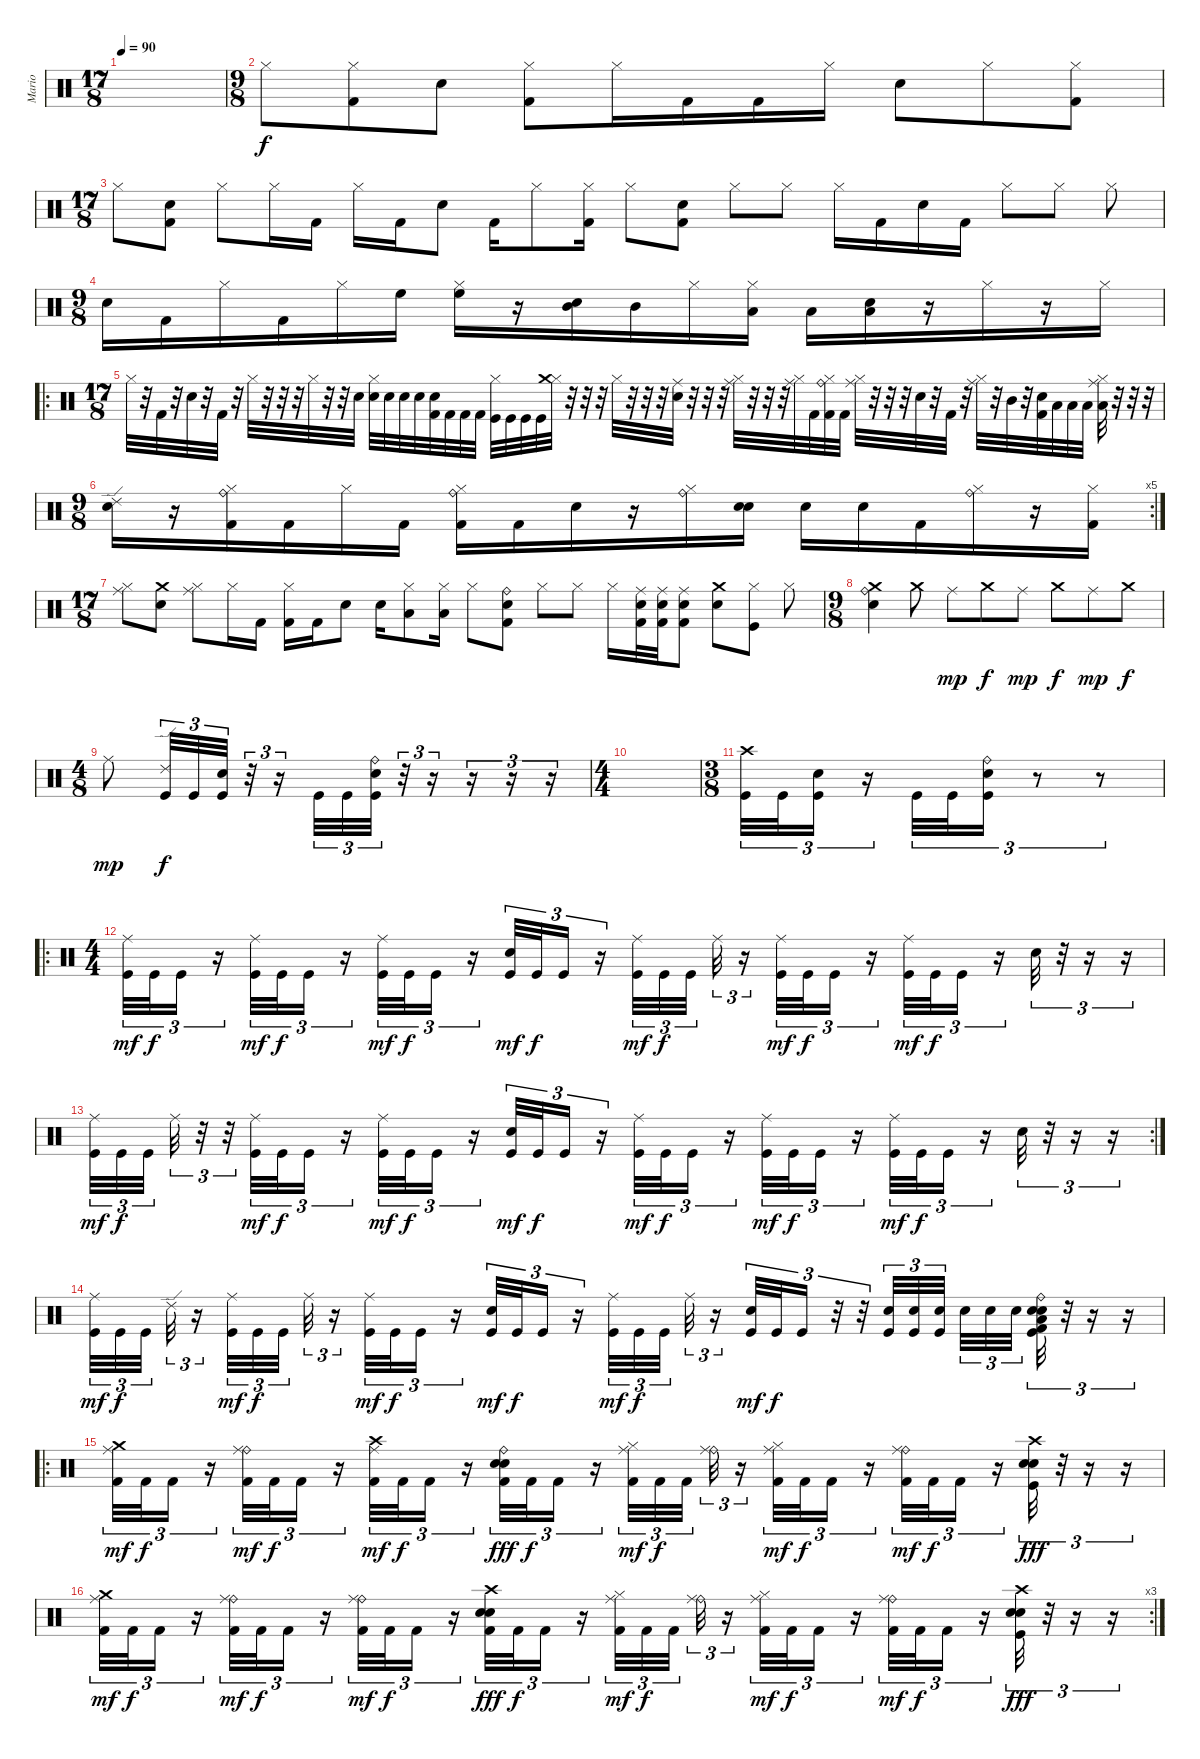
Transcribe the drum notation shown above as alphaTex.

\track ("Mario" "Mario") {instrument percussion}
\staff {score}
\articulation defaults
\ts (17 8)
\tempo 90
\clef neutral
\ks c
|
\ts (9 8)
"Hi-Hat (closed)".8 ("Hi-Hat (closed)" "Kick (hit) 2").8 "Electric Snare (hit)".8 ("Hi-Hat (closed)" "Kick (hit) 2").8 "Hi-Hat (closed)".16 "Kick (hit) 2".16 "Kick (hit) 2".16 "Hi-Hat (closed)".16 "Electric Snare (hit)".8 "Hi-Hat (closed)".8 ("Hi-Hat (closed)" "Kick (hit) 2").8 |
\ts (17 8)
"Hi-Hat (closed)".8 ("Electric Snare (hit)" "Kick (hit) 2").8 "Hi-Hat (closed)".8 "Hi-Hat (closed)".16 "Kick (hit) 2".16 "Hi-Hat (closed)".16 "Kick (hit) 2".16 "Electric Snare (hit)".8 "Kick (hit) 2".16 "Hi-Hat (closed)".8 ("Hi-Hat (closed)" "Kick (hit) 2").16 "Hi-Hat (closed)".8 ("Electric Snare (hit)" "Kick (hit) 2").8 "Hi-Hat (closed)".8 "Hi-Hat (closed)".8 "Hi-Hat (closed)".16 "Kick (hit) 2".16 "Electric Snare (hit)".16 "Kick (hit) 2".16 "Hi-Hat (closed)".8 "Hi-Hat (closed)".8 "Hi-Hat (closed)".8 |
\ts (9 8)
"Electric Snare (hit)".16 "Kick (hit) 2".16 "Hi-Hat (closed)".16 "Kick (hit) 2".16 "Hi-Hat (closed)".16 "High Floor Tom (hit)".16 ("Hi-Hat (closed)" "High Floor Tom (hit)").16 r.16 ("Electric Snare (hit)" "Mid Tom (hit)").16 "Mid Tom (hit)".16 "Hi-Hat (closed)".16 ("Hi-Hat (closed)" "Low Floor Tom (hit)").16 "Low Tom (hit)".16 ("Electric Snare (hit)" "Low Floor Tom (hit)").16 r.16 "Hi-Hat (closed)".16 r.16 "Hi-Hat (closed)".16 |
\ro
\ts (17 8)
"Hi-Hat (closed)".32 r.32 "Kick (hit) 2".32 r.32 "Electric Snare (hit)".32 r.32 "Kick (hit) 2".32 r.32 "Hi-Hat (closed)".32 r.32 r.32 r.32 "Hi-Hat (closed)".32 r.32 r.32 "Electric Snare (hit)".32 ("Hi-Hat (closed)" "Snare (hit) 2").32 "Snare (hit) 2".32 "Snare (hit) 2".32 "Snare (hit) 2".32 ("Electric Snare (hit)" "Kick (hit) 2").32 "Kick (hit) 2".32 "Kick (hit) 2".32 "Kick (hit) 2".32 ("Hi-Hat (closed)" "Kick (hit)").32 "Kick (hit)".32 "Kick (hit)".32 "Kick (hit)".32 ("Hi-Hat (closed)" "Crash medium (hit)").32 r.32 r.32 r.32 "Hi-Hat (closed)".32 r.32 r.32 r.32 ("Electric Snare (hit)" "Ride (middle)").32 r.32 r.32 r.32 ("Hi-Hat (closed)" "Ride (middle)").32 r.32 r.32 r.32 ("Hi-Hat (closed)" "Ride (middle)").32 "Kick (hit) 2".32 ("Hi-Hat (closed)" "Kick (hit) 2" "Ride (bell)").32 "Kick (hit) 2".32 ("Hi-Hat (closed)" "Ride (middle)").32 r.32 r.32 r.32 "Electric Snare (hit)".32 r.32 "Kick (hit) 2".32 r.32 ("Hi-Hat (closed)" "Ride (middle)").32 r.32 "Mid Tom (hit)".32 r.32 ("Snare (hit) 2" "Kick (hit) 2").32 "Low Tom (hit)".32 "Low Tom (hit)".32 "Low Tom (hit)".32 ("Hi-Hat (closed)" "Low Floor Tom (hit)" "Ride (middle)").32 r.32 r.32 r.32 |
\rc 5
\ts (9 8)
("Electric Snare (hit)" "Ride (edge) 2").16 r.16 ("Hi-Hat (closed)" "Kick (hit) 2" "Ride (bell)").16 "Kick (hit) 2".16 "Hi-Hat (closed)".16 "Kick (hit) 2".16 ("Hi-Hat (closed)" "Kick (hit) 2" "Ride (bell)").16 "Kick (hit) 2".16 "Electric Snare (hit)".16 r.16 ("Hi-Hat (closed)" "Ride (bell)").16 ("Electric Snare (hit)" "Snare (hit) 2").16 "Snare (hit) 2".16 "Electric Snare (hit)".16 "Kick (hit) 2".16 ("Hi-Hat (closed)" "Ride (bell)").16 r.16 ("Hi-Hat (closed)" "Kick (hit) 2").16 |
\ts (17 8)
("Hi-Hat (closed)" "Ride (middle)").8 ("Electric Snare (hit)" "Crash medium (hit)").8 ("Hi-Hat (closed)" "Ride (middle)").8 "Hi-Hat (closed)".16 "Kick (hit) 2".16 ("Hi-Hat (closed)" "Kick (hit) 2").16 "Kick (hit) 2".16 "Electric Snare (hit)".8 "Snare (hit) 2".16 ("Hi-Hat (closed)" "Low Tom (hit)").8 ("Hi-Hat (closed)" "Low Tom (hit)").16 "Hi-Hat (closed)".8 ("Electric Snare (hit)" "Kick (hit) 2" "Ride (bell)").8 "Hi-Hat (closed)".8 "Hi-Hat (closed)".8 "Hi-Hat (closed)".16 ("Snare (hit) 2" "Kick (hit) 2" "Ride (middle)").32 ("Snare (hit) 2" "Kick (hit) 2" "Ride (middle)").32 ("Snare (hit) 2" "Kick (hit) 2" "Ride (middle)").8 ("Electric Snare (hit)" "Crash medium (hit)").8 ("Hi-Hat (closed)" "Kick (hit)").8 "Hi-Hat (closed)".8 |
\ts (9 8)
("Crash medium (hit)" "Electric Snare (hit)" "Ride (bell)").4 "Crash medium (hit)".8 "Ride (middle)".8{dy mp} "Crash medium (hit)".8{dy f} "Ride (middle)".8{dy mp} "Crash medium (hit)".8{dy f} "Ride (middle)".8{dy mp} "Crash medium (hit)".8{dy f} |
\ts (4 8)
"Ride (middle)".8{dy mp} ("Ride (edge) 2" "Kick (hit)").32{tu (3 2) dy f} "Kick (hit)".32{tu (3 2)} ("Kick (hit)" "Electric Snare (hit)").32{tu (3 2)} r.32{tu (3 2)} r.16{tu (3 2)} "Kick (hit)".32{tu (3 2)} "Kick (hit)".32{tu (3 2)} ("Ride (bell)" "Kick (hit)" "Electric Snare (hit)").32{tu (3 2)} r.32{tu (3 2)} r.16{tu (3 2)} r.16{tu (3 2)} r.16{tu (3 2)} r.16{tu (3 2)} |
\ts (4 4)
|
\ts (3 8)
("Crash high (hit)" "Kick (hit)").32{tu (3 2)} "Kick (hit)".32{tu (3 2)} ("Kick (hit)" "Electric Snare (hit)").16{tu (3 2)} r.16{tu (3 2)} "Kick (hit)".32{tu (3 2)} "Kick (hit)".32{tu (3 2)} ("Ride (bell)" "Kick (hit)" "Electric Snare (hit)").16{tu (3 2)} r.8{tu (3 2)} r.8{tu (3 2)} |
\ro
\ts (4 4)
("Ride (middle)" "Kick (hit)").32{tu (3 2) dy mf} "Kick (hit)".32{tu (3 2) dy f} "Kick (hit)".16{tu (3 2)} r.16{tu (3 2)} ("Ride (middle)" "Kick (hit)").32{tu (3 2) dy mf} "Kick (hit)".32{tu (3 2) dy f} "Kick (hit)".16{tu (3 2)} r.16{tu (3 2)} ("Ride (middle)" "Kick (hit)").32{tu (3 2) dy mf} "Kick (hit)".32{tu (3 2) dy f} "Kick (hit)".16{tu (3 2)} r.16{tu (3 2)} ("Electric Snare (hit)" "Kick (hit)").32{tu (3 2) dy mf} "Kick (hit)".32{tu (3 2) dy f} "Kick (hit)".16{tu (3 2)} r.16{tu (3 2)} ("Ride (middle)" "Kick (hit)").32{tu (3 2) dy mf} "Kick (hit)".32{tu (3 2) dy f} "Kick (hit)".32{tu (3 2)} "Ride (middle)".32{tu (3 2)} r.16{tu (3 2)} ("Ride (middle)" "Kick (hit)").32{tu (3 2) dy mf} "Kick (hit)".32{tu (3 2) dy f} "Kick (hit)".16{tu (3 2)} r.16{tu (3 2)} ("Ride (middle)" "Kick (hit)").32{tu (3 2) dy mf} "Kick (hit)".32{tu (3 2) dy f} "Kick (hit)".16{tu (3 2)} r.16{tu (3 2)} "Electric Snare (hit)".32{tu (3 2)} r.32{tu (3 2)} r.16{tu (3 2)} r.16{tu (3 2)} |
\rc 2
("Ride (middle)" "Kick (hit)").32{tu (3 2) dy mf} "Kick (hit)".32{tu (3 2) dy f} "Kick (hit)".32{tu (3 2)} "Ride (middle)".32{tu (3 2)} r.32{tu (3 2)} r.32{tu (3 2)} ("Ride (middle)" "Kick (hit)").32{tu (3 2) dy mf} "Kick (hit)".32{tu (3 2) dy f} "Kick (hit)".16{tu (3 2)} r.16{tu (3 2)} ("Ride (middle)" "Kick (hit)").32{tu (3 2) dy mf} "Kick (hit)".32{tu (3 2) dy f} "Kick (hit)".16{tu (3 2)} r.16{tu (3 2)} ("Snare (hit) 2" "Kick (hit)").32{tu (3 2) dy mf} "Kick (hit)".32{tu (3 2) dy f} "Kick (hit)".16{tu (3 2)} r.16{tu (3 2)} ("Ride (middle)" "Kick (hit)").32{tu (3 2) dy mf} "Kick (hit)".32{tu (3 2) dy f} "Kick (hit)".16{tu (3 2)} r.16{tu (3 2)} ("Ride (middle)" "Kick (hit)").32{tu (3 2) dy mf} "Kick (hit)".32{tu (3 2) dy f} "Kick (hit)".16{tu (3 2)} r.16{tu (3 2)} ("Ride (middle)" "Kick (hit)").32{tu (3 2) dy mf} "Kick (hit)".32{tu (3 2) dy f} "Kick (hit)".16{tu (3 2)} r.16{tu (3 2)} "Snare (hit) 2".32{tu (3 2)} r.32{tu (3 2)} r.16{tu (3 2)} r.16{tu (3 2)} |
("Ride (middle)" "Kick (hit)").32{tu (3 2) dy mf} "Kick (hit)".32{tu (3 2) dy f} "Kick (hit)".32{tu (3 2)} "Ride (edge) 2".32{tu (3 2)} r.16{tu (3 2)} ("Ride (middle)" "Kick (hit)").32{tu (3 2) dy mf} "Kick (hit)".32{tu (3 2) dy f} "Kick (hit)".32{tu (3 2)} "Ride (middle)".32{tu (3 2)} r.16{tu (3 2)} ("Ride (middle)" "Kick (hit)").32{tu (3 2) dy mf} "Kick (hit)".32{tu (3 2) dy f} "Kick (hit)".16{tu (3 2)} r.16{tu (3 2)} ("Electric Snare (hit)" "Kick (hit)").32{tu (3 2) dy mf} "Kick (hit)".32{tu (3 2) dy f} "Kick (hit)".16{tu (3 2)} r.16{tu (3 2)} ("Ride (middle)" "Kick (hit)").32{tu (3 2) dy mf} "Kick (hit)".32{tu (3 2) dy f} "Kick (hit)".32{tu (3 2)} "Ride (middle)".32{tu (3 2)} r.16{tu (3 2)} ("Snare (hit) 2" "Kick (hit)").32{tu (3 2) dy mf} "Kick (hit)".32{tu (3 2) dy f} "Kick (hit)".16{tu (3 2)} r.32{tu (3 2)} r.32{tu (3 2)} ("Snare (hit) 2" "Kick (hit)").32{tu (3 2)} ("Snare (hit) 2" "Kick (hit)").32{tu (3 2)} ("Snare (hit) 2" "Kick (hit)").32{tu (3 2)} "Snare (hit) 2".32{tu (3 2)} "Snare (hit) 2".32{tu (3 2)} "Snare (hit) 2".32{tu (3 2)} ("Ride (bell)" "Electric Snare (hit)" "Snare (hit) 2" "Kick (hit) 2" "Kick (hit)" "Low Floor Tom (hit)").32{tu (3 2)} r.32{tu (3 2)} r.16{tu (3 2)} r.16{tu (3 2)} |
\ro
("Crash medium (hit)" "Ride (middle)" "Kick (hit) 2").32{tu (3 2) dy mf} "Kick (hit) 2".32{tu (3 2) dy f} "Kick (hit) 2".16{tu (3 2)} r.16{tu (3 2)} ("Ride (bell)" "Ride (middle)" "Kick (hit) 2").32{tu (3 2) dy mf} "Kick (hit) 2".32{tu (3 2) dy f} "Kick (hit) 2".16{tu (3 2)} r.16{tu (3 2)} ("Crash high (hit)" "Ride (middle)" "Kick (hit) 2").32{tu (3 2) dy mf} "Kick (hit) 2".32{tu (3 2) dy f} "Kick (hit) 2".16{tu (3 2)} r.16{tu (3 2)} ("Ride (bell)" "Electric Snare (hit)" "Snare (hit) 2" "Kick (hit) 2").32{tu (3 2) dy fff} "Kick (hit) 2".32{tu (3 2) dy f} "Kick (hit) 2".16{tu (3 2)} r.16{tu (3 2)} ("Hi-Hat (closed)" "Ride (middle)" "Kick (hit) 2").32{tu (3 2) dy mf} "Kick (hit) 2".32{tu (3 2) dy f} "Kick (hit) 2".32{tu (3 2)} ("Ride (bell)" "Ride (middle)").32{tu (3 2)} r.16{tu (3 2)} ("Hi-Hat (closed)" "Ride (middle)" "Kick (hit) 2").32{tu (3 2) dy mf} "Kick (hit) 2".32{tu (3 2) dy f} "Kick (hit) 2".16{tu (3 2)} r.16{tu (3 2)} ("Ride (bell)" "Ride (middle)" "Kick (hit) 2").32{tu (3 2) dy mf} "Kick (hit) 2".32{tu (3 2) dy f} "Kick (hit) 2".16{tu (3 2)} r.16{tu (3 2)} ("Crash high (hit)" "Electric Snare (hit)" "Snare (hit) 2" "Kick (hit)").32{tu (3 2) dy fff} r.32{tu (3 2)} r.16{tu (3 2)} r.16{tu (3 2)} |
\rc 3
("Crash medium (hit)" "Ride (middle)" "Kick (hit) 2").32{tu (3 2) dy mf} "Kick (hit) 2".32{tu (3 2) dy f} "Kick (hit) 2".16{tu (3 2)} r.16{tu (3 2)} ("Ride (bell)" "Ride (middle)" "Kick (hit) 2").32{tu (3 2) dy mf} "Kick (hit) 2".32{tu (3 2) dy f} "Kick (hit) 2".16{tu (3 2)} r.16{tu (3 2)} ("Ride (bell)" "Ride (middle)" "Kick (hit) 2").32{tu (3 2) dy mf} "Kick (hit) 2".32{tu (3 2) dy f} "Kick (hit) 2".16{tu (3 2)} r.16{tu (3 2)} ("Crash high (hit)" "Electric Snare (hit)" "Snare (hit) 2" "Kick (hit) 2").32{tu (3 2) dy fff} "Kick (hit) 2".32{tu (3 2) dy f} "Kick (hit) 2".16{tu (3 2)} r.16{tu (3 2)} ("Hi-Hat (closed)" "Ride (middle)" "Kick (hit) 2").32{tu (3 2) dy mf} "Kick (hit) 2".32{tu (3 2) dy f} "Kick (hit) 2".32{tu (3 2)} ("Ride (bell)" "Ride (middle)").32{tu (3 2)} r.16{tu (3 2)} ("Hi-Hat (closed)" "Ride (middle)" "Kick (hit) 2").32{tu (3 2) dy mf} "Kick (hit) 2".32{tu (3 2) dy f} "Kick (hit) 2".16{tu (3 2)} r.16{tu (3 2)} ("Ride (bell)" "Ride (middle)" "Kick (hit) 2").32{tu (3 2) dy mf} "Kick (hit) 2".32{tu (3 2) dy f} "Kick (hit) 2".16{tu (3 2)} r.16{tu (3 2)} ("Crash high (hit)" "Electric Snare (hit)" "Snare (hit) 2" "Kick (hit)").32{tu (3 2) dy fff} r.32{tu (3 2)} r.16{tu (3 2)} r.16{tu (3 2)}
